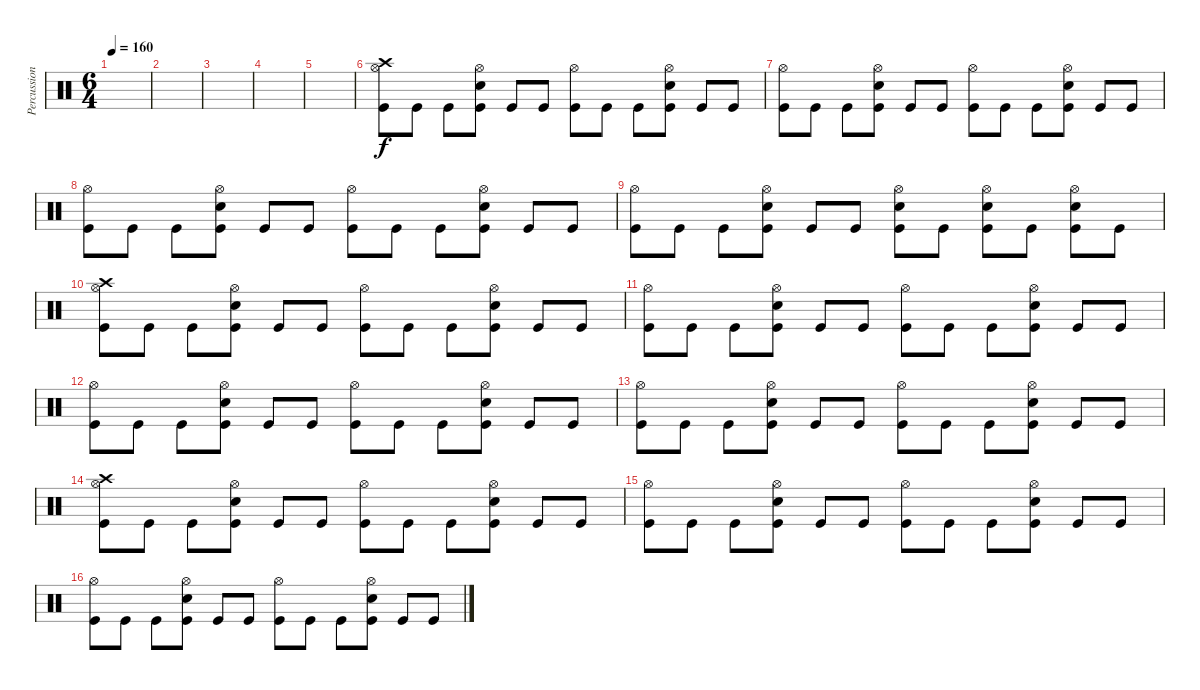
\track ("Percussion" "Percussion") {instrument percussion}
\staff {score}
\articulation defaults
\ts (6 4)
\tempo 160
\clef neutral
\ks c
|
|
|
|
|
("Crash high (hit)" "Hi-Hat (open)" "Kick (hit)").8 "Kick (hit)".8 "Kick (hit)".8 ("Electric Snare (hit)" "Hi-Hat (open)" "Kick (hit)").8 "Kick (hit)".8 "Kick (hit)".8 ("Hi-Hat (open)" "Kick (hit)").8 "Kick (hit)".8 "Kick (hit)".8 ("Electric Snare (hit)" "Hi-Hat (open)" "Kick (hit)").8 "Kick (hit)".8 "Kick (hit)".8 |
("Hi-Hat (open)" "Kick (hit)").8 "Kick (hit)".8 "Kick (hit)".8 ("Electric Snare (hit)" "Hi-Hat (open)" "Kick (hit)").8 "Kick (hit)".8 "Kick (hit)".8 ("Hi-Hat (open)" "Kick (hit)").8 "Kick (hit)".8 "Kick (hit)".8 ("Electric Snare (hit)" "Hi-Hat (open)" "Kick (hit)").8 "Kick (hit)".8 "Kick (hit)".8 |
("Hi-Hat (open)" "Kick (hit)").8 "Kick (hit)".8 "Kick (hit)".8 ("Electric Snare (hit)" "Hi-Hat (open)" "Kick (hit)").8 "Kick (hit)".8 "Kick (hit)".8 ("Hi-Hat (open)" "Kick (hit)").8 "Kick (hit)".8 "Kick (hit)".8 ("Electric Snare (hit)" "Hi-Hat (open)" "Kick (hit)").8 "Kick (hit)".8 "Kick (hit)".8 |
("Hi-Hat (open)" "Kick (hit)").8 "Kick (hit)".8 "Kick (hit)".8 ("Electric Snare (hit)" "Hi-Hat (open)" "Kick (hit)").8 "Kick (hit)".8 "Kick (hit)".8 ("Electric Snare (hit)" "Hi-Hat (open)" "Kick (hit)").8 "Kick (hit)".8 ("Electric Snare (hit)" "Hi-Hat (open)" "Kick (hit)").8 "Kick (hit)".8 ("Electric Snare (hit)" "Hi-Hat (open)" "Kick (hit)").8 "Kick (hit)".8 |
("Crash high (hit)" "Hi-Hat (open)" "Kick (hit)").8 "Kick (hit)".8 "Kick (hit)".8 ("Electric Snare (hit)" "Hi-Hat (open)" "Kick (hit)").8 "Kick (hit)".8 "Kick (hit)".8 ("Hi-Hat (open)" "Kick (hit)").8 "Kick (hit)".8 "Kick (hit)".8 ("Electric Snare (hit)" "Hi-Hat (open)" "Kick (hit)").8 "Kick (hit)".8 "Kick (hit)".8 |
("Hi-Hat (open)" "Kick (hit)").8 "Kick (hit)".8 "Kick (hit)".8 ("Electric Snare (hit)" "Hi-Hat (open)" "Kick (hit)").8 "Kick (hit)".8 "Kick (hit)".8 ("Hi-Hat (open)" "Kick (hit)").8 "Kick (hit)".8 "Kick (hit)".8 ("Electric Snare (hit)" "Hi-Hat (open)" "Kick (hit)").8 "Kick (hit)".8 "Kick (hit)".8 |
("Hi-Hat (open)" "Kick (hit)").8 "Kick (hit)".8 "Kick (hit)".8 ("Electric Snare (hit)" "Hi-Hat (open)" "Kick (hit)").8 "Kick (hit)".8 "Kick (hit)".8 ("Hi-Hat (open)" "Kick (hit)").8 "Kick (hit)".8 "Kick (hit)".8 ("Electric Snare (hit)" "Hi-Hat (open)" "Kick (hit)").8 "Kick (hit)".8 "Kick (hit)".8 |
("Hi-Hat (open)" "Kick (hit)").8 "Kick (hit)".8 "Kick (hit)".8 ("Electric Snare (hit)" "Hi-Hat (open)" "Kick (hit)").8 "Kick (hit)".8 "Kick (hit)".8 ("Hi-Hat (open)" "Kick (hit)").8 "Kick (hit)".8 "Kick (hit)".8 ("Electric Snare (hit)" "Hi-Hat (open)" "Kick (hit)").8 "Kick (hit)".8 "Kick (hit)".8 |
("Crash high (hit)" "Hi-Hat (open)" "Kick (hit)").8 "Kick (hit)".8 "Kick (hit)".8 ("Electric Snare (hit)" "Hi-Hat (open)" "Kick (hit)").8 "Kick (hit)".8 "Kick (hit)".8 ("Hi-Hat (open)" "Kick (hit)").8 "Kick (hit)".8 "Kick (hit)".8 ("Electric Snare (hit)" "Hi-Hat (open)" "Kick (hit)").8 "Kick (hit)".8 "Kick (hit)".8 |
("Hi-Hat (open)" "Kick (hit)").8 "Kick (hit)".8 "Kick (hit)".8 ("Electric Snare (hit)" "Hi-Hat (open)" "Kick (hit)").8 "Kick (hit)".8 "Kick (hit)".8 ("Hi-Hat (open)" "Kick (hit)").8 "Kick (hit)".8 "Kick (hit)".8 ("Electric Snare (hit)" "Hi-Hat (open)" "Kick (hit)").8 "Kick (hit)".8 "Kick (hit)".8 |
("Hi-Hat (open)" "Kick (hit)").8 "Kick (hit)".8 "Kick (hit)".8 ("Electric Snare (hit)" "Hi-Hat (open)" "Kick (hit)").8 "Kick (hit)".8 "Kick (hit)".8 ("Hi-Hat (open)" "Kick (hit)").8 "Kick (hit)".8 "Kick (hit)".8 ("Electric Snare (hit)" "Hi-Hat (open)" "Kick (hit)").8 "Kick (hit)".8 "Kick (hit)".8
